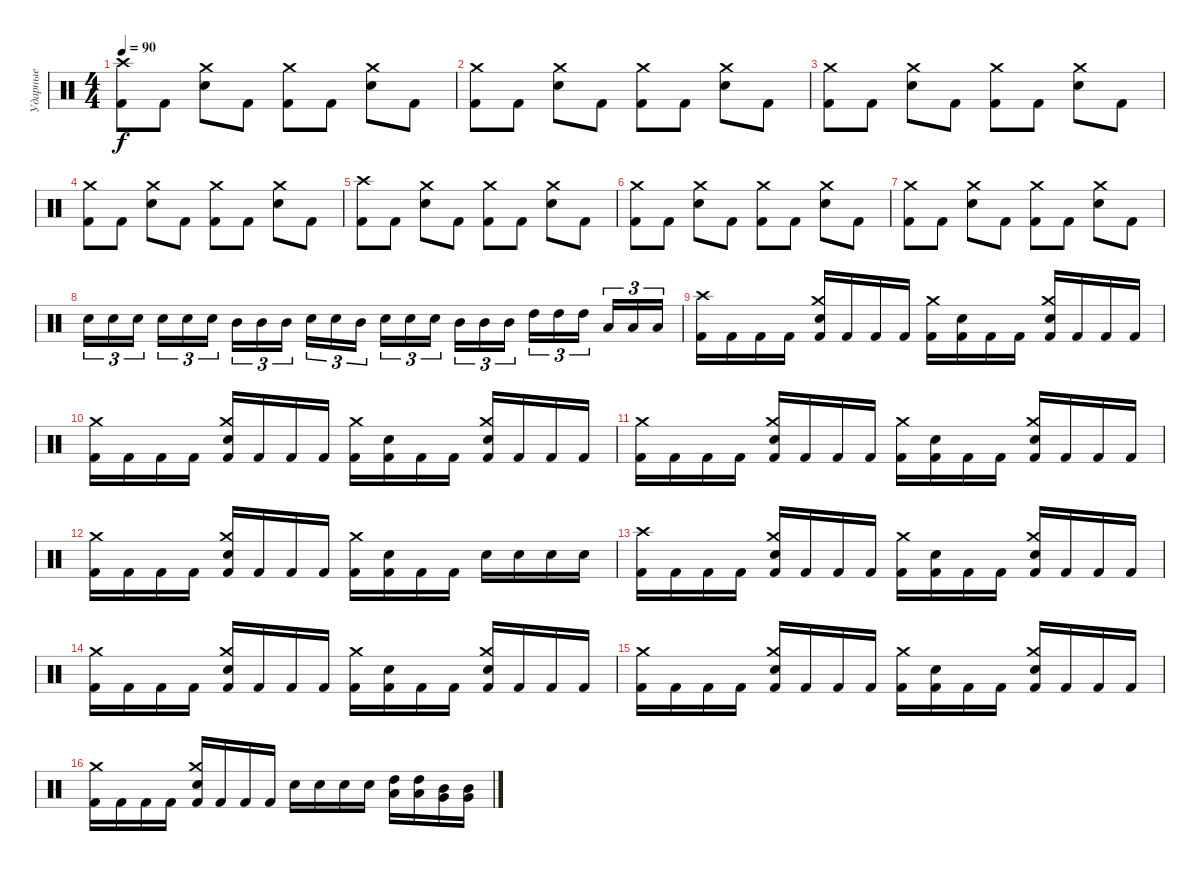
\track ("Ударные" "Ударные") {instrument percussion}
\staff {score}
\articulation defaults
\ts (4 4)
\tempo 90
\clef neutral
\ks c
("Crash high (hit)" "Kick (hit) 2").8{dy f} "Kick (hit) 2".8 ("Crash medium (hit)" "Electric Snare (hit)").8 "Kick (hit) 2".8 ("Crash medium (hit)" "Kick (hit) 2").8 "Kick (hit) 2".8 ("Crash medium (hit)" "Electric Snare (hit)").8 "Kick (hit) 2".8 |
("Crash medium (hit)" "Kick (hit) 2").8 "Kick (hit) 2".8 ("Crash medium (hit)" "Electric Snare (hit)").8 "Kick (hit) 2".8 ("Crash medium (hit)" "Kick (hit) 2").8 "Kick (hit) 2".8 ("Crash medium (hit)" "Electric Snare (hit)").8 "Kick (hit) 2".8 |
("Crash medium (hit)" "Kick (hit) 2").8 "Kick (hit) 2".8 ("Crash medium (hit)" "Electric Snare (hit)").8 "Kick (hit) 2".8 ("Crash medium (hit)" "Kick (hit) 2").8 "Kick (hit) 2".8 ("Crash medium (hit)" "Electric Snare (hit)").8 "Kick (hit) 2".8 |
("Crash medium (hit)" "Kick (hit) 2").8 "Kick (hit) 2".8 ("Crash medium (hit)" "Electric Snare (hit)").8 "Kick (hit) 2".8 ("Crash medium (hit)" "Kick (hit) 2").8 "Kick (hit) 2".8 ("Crash medium (hit)" "Electric Snare (hit)").8 "Kick (hit) 2".8 |
("Crash high (hit)" "Kick (hit) 2").8 "Kick (hit) 2".8 ("Crash medium (hit)" "Electric Snare (hit)").8 "Kick (hit) 2".8 ("Crash medium (hit)" "Kick (hit) 2").8 "Kick (hit) 2".8 ("Crash medium (hit)" "Electric Snare (hit)").8 "Kick (hit) 2".8 |
("Crash medium (hit)" "Kick (hit) 2").8 "Kick (hit) 2".8 ("Crash medium (hit)" "Electric Snare (hit)").8 "Kick (hit) 2".8 ("Crash medium (hit)" "Kick (hit) 2").8 "Kick (hit) 2".8 ("Crash medium (hit)" "Electric Snare (hit)").8 "Kick (hit) 2".8 |
("Crash medium (hit)" "Kick (hit) 2").8 "Kick (hit) 2".8 ("Crash medium (hit)" "Electric Snare (hit)").8 "Kick (hit) 2".8 ("Crash medium (hit)" "Kick (hit) 2").8 "Kick (hit) 2".8 ("Crash medium (hit)" "Electric Snare (hit)").8 "Kick (hit) 2".8 |
"Electric Snare (hit)".16{tu (3 2)} "Electric Snare (hit)".16{tu (3 2)} "Electric Snare (hit)".16{tu (3 2) beam splitsecondary} "Electric Snare (hit)".16{tu (3 2)} "Electric Snare (hit)".16{tu (3 2)} "Electric Snare (hit)".16{tu (3 2)} "Mid Tom (hit)".16{tu (3 2)} "Mid Tom (hit)".16{tu (3 2)} "Mid Tom (hit)".16{tu (3 2) beam splitsecondary} "Electric Snare (hit)".16{tu (3 2)} "Electric Snare (hit)".16{tu (3 2)} "Mid Tom (hit)".16{tu (3 2)} "Electric Snare (hit)".16{tu (3 2)} "Electric Snare (hit)".16{tu (3 2)} "Electric Snare (hit)".16{tu (3 2) beam splitsecondary} "Mid Tom (hit)".16{tu (3 2)} "Mid Tom (hit)".16{tu (3 2)} "Mid Tom (hit)".16{tu (3 2)} "High Tom (hit)".16{tu (3 2)} "High Tom (hit)".16{tu (3 2)} "High Tom (hit)".16{tu (3 2) beam splitsecondary} "Low Tom (hit)".16{tu (3 2)} "Low Tom (hit)".16{tu (3 2)} "Low Tom (hit)".16{tu (3 2)} |
("Crash high (hit)" "Kick (hit) 2").16 "Kick (hit) 2".16 "Kick (hit) 2".16 "Kick (hit) 2".16 ("Crash medium (hit)" "Electric Snare (hit)" "Kick (hit) 2").16 "Kick (hit) 2".16 "Kick (hit) 2".16 "Kick (hit) 2".16 ("Crash medium (hit)" "Kick (hit) 2").16 ("Electric Snare (hit)" "Kick (hit) 2").16 "Kick (hit) 2".16 "Kick (hit) 2".16 ("Crash medium (hit)" "Electric Snare (hit)" "Kick (hit) 2").16 "Kick (hit) 2".16 "Kick (hit) 2".16 "Kick (hit) 2".16 |
("Crash medium (hit)" "Kick (hit) 2").16 "Kick (hit) 2".16 "Kick (hit) 2".16 "Kick (hit) 2".16 ("Crash medium (hit)" "Electric Snare (hit)" "Kick (hit) 2").16 "Kick (hit) 2".16 "Kick (hit) 2".16 "Kick (hit) 2".16 ("Crash medium (hit)" "Kick (hit) 2").16 ("Electric Snare (hit)" "Kick (hit) 2").16 "Kick (hit) 2".16 "Kick (hit) 2".16 ("Crash medium (hit)" "Electric Snare (hit)" "Kick (hit) 2").16 "Kick (hit) 2".16 "Kick (hit) 2".16 "Kick (hit) 2".16 |
("Crash medium (hit)" "Kick (hit) 2").16 "Kick (hit) 2".16 "Kick (hit) 2".16 "Kick (hit) 2".16 ("Crash medium (hit)" "Electric Snare (hit)" "Kick (hit) 2").16 "Kick (hit) 2".16 "Kick (hit) 2".16 "Kick (hit) 2".16 ("Crash medium (hit)" "Kick (hit) 2").16 ("Electric Snare (hit)" "Kick (hit) 2").16 "Kick (hit) 2".16 "Kick (hit) 2".16 ("Crash medium (hit)" "Electric Snare (hit)" "Kick (hit) 2").16 "Kick (hit) 2".16 "Kick (hit) 2".16 "Kick (hit) 2".16 |
("Crash medium (hit)" "Kick (hit) 2").16 "Kick (hit) 2".16 "Kick (hit) 2".16 "Kick (hit) 2".16 ("Crash medium (hit)" "Electric Snare (hit)" "Kick (hit) 2").16 "Kick (hit) 2".16 "Kick (hit) 2".16 "Kick (hit) 2".16 ("Crash medium (hit)" "Kick (hit) 2").16 ("Electric Snare (hit)" "Kick (hit) 2").16 "Kick (hit) 2".16 "Kick (hit) 2".16 "Electric Snare (hit)".16 "Electric Snare (hit)".16 "Electric Snare (hit)".16 "Electric Snare (hit)".16 |
("Crash high (hit)" "Kick (hit) 2").16 "Kick (hit) 2".16 "Kick (hit) 2".16 "Kick (hit) 2".16 ("Crash medium (hit)" "Electric Snare (hit)" "Kick (hit) 2").16 "Kick (hit) 2".16 "Kick (hit) 2".16 "Kick (hit) 2".16 ("Crash medium (hit)" "Kick (hit) 2").16 ("Electric Snare (hit)" "Kick (hit) 2").16 "Kick (hit) 2".16 "Kick (hit) 2".16 ("Crash medium (hit)" "Electric Snare (hit)" "Kick (hit) 2").16 "Kick (hit) 2".16 "Kick (hit) 2".16 "Kick (hit) 2".16 |
("Crash medium (hit)" "Kick (hit) 2").16 "Kick (hit) 2".16 "Kick (hit) 2".16 "Kick (hit) 2".16 ("Crash medium (hit)" "Electric Snare (hit)" "Kick (hit) 2").16 "Kick (hit) 2".16 "Kick (hit) 2".16 "Kick (hit) 2".16 ("Crash medium (hit)" "Kick (hit) 2").16 ("Electric Snare (hit)" "Kick (hit) 2").16 "Kick (hit) 2".16 "Kick (hit) 2".16 ("Crash medium (hit)" "Electric Snare (hit)" "Kick (hit) 2").16 "Kick (hit) 2".16 "Kick (hit) 2".16 "Kick (hit) 2".16 |
("Crash medium (hit)" "Kick (hit) 2").16 "Kick (hit) 2".16 "Kick (hit) 2".16 "Kick (hit) 2".16 ("Crash medium (hit)" "Electric Snare (hit)" "Kick (hit) 2").16 "Kick (hit) 2".16 "Kick (hit) 2".16 "Kick (hit) 2".16 ("Crash medium (hit)" "Kick (hit) 2").16 ("Electric Snare (hit)" "Kick (hit) 2").16 "Kick (hit) 2".16 "Kick (hit) 2".16 ("Crash medium (hit)" "Electric Snare (hit)" "Kick (hit) 2").16 "Kick (hit) 2".16 "Kick (hit) 2".16 "Kick (hit) 2".16 |
("Crash medium (hit)" "Kick (hit) 2").16 "Kick (hit) 2".16 "Kick (hit) 2".16 "Kick (hit) 2".16 ("Crash medium (hit)" "Electric Snare (hit)" "Kick (hit) 2").16 "Kick (hit) 2".16 "Kick (hit) 2".16 "Kick (hit) 2".16 "Electric Snare (hit)".16 "Electric Snare (hit)".16 "Electric Snare (hit)".16 "Electric Snare (hit)".16 ("High Tom (hit)" "Low Tom (hit)").16 ("High Tom (hit)" "Low Tom (hit)").16 ("Mid Tom (hit)" "Very Low Tom (hit)").16 ("Mid Tom (hit)" "Very Low Tom (hit)").16
